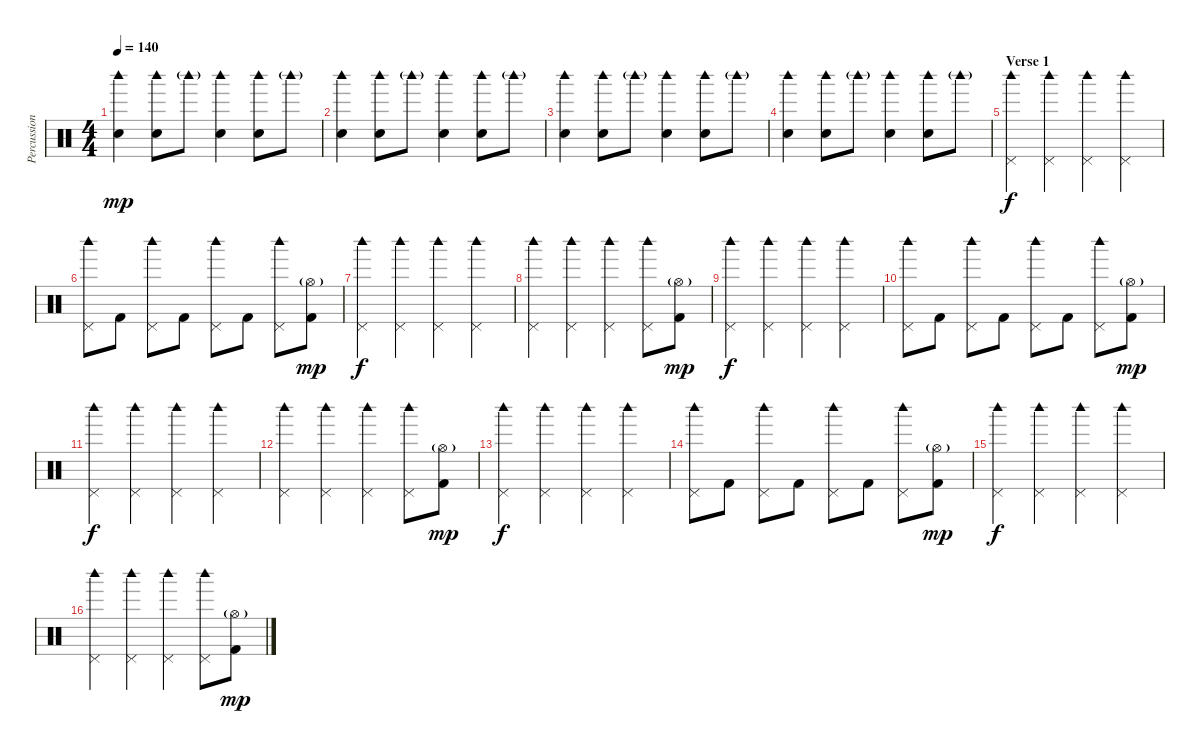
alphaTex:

\track ("Percussion" "Percussion") {instrument percussion}
\staff {score}
\articulation defaults
\ts (4 4)
\tempo 140
\clef neutral
\ks c
("Woodblock high (hit)" "Electric Snare (hit)").4{dy mp} ("Woodblock high (hit)" "Electric Snare (hit)").8 "Woodblock high (hit)"{g}.8 ("Woodblock high (hit)" "Electric Snare (hit)").4 ("Woodblock high (hit)" "Electric Snare (hit)").8 "Woodblock high (hit)"{g}.8 |
("Woodblock high (hit)" "Electric Snare (hit)").4 ("Woodblock high (hit)" "Electric Snare (hit)").8 "Woodblock high (hit)"{g}.8 ("Woodblock high (hit)" "Electric Snare (hit)").4 ("Woodblock high (hit)" "Electric Snare (hit)").8 "Woodblock high (hit)"{g}.8 |
("Woodblock high (hit)" "Electric Snare (hit)").4 ("Woodblock high (hit)" "Electric Snare (hit)").8 "Woodblock high (hit)"{g}.8 ("Woodblock high (hit)" "Electric Snare (hit)").4 ("Woodblock high (hit)" "Electric Snare (hit)").8 "Woodblock high (hit)"{g}.8 |
("Woodblock high (hit)" "Electric Snare (hit)").4 ("Woodblock high (hit)" "Electric Snare (hit)").8 "Woodblock high (hit)"{g}.8 ("Woodblock high (hit)" "Electric Snare (hit)").4 ("Woodblock high (hit)" "Electric Snare (hit)").8 "Woodblock high (hit)"{g}.8 |
\section ("" "Verse 1")
("Pedal Hi-Hat (hit)" "Woodblock high (hit)").4{dy f} ("Pedal Hi-Hat (hit)" "Woodblock high (hit)").4 ("Pedal Hi-Hat (hit)" "Woodblock high (hit)").4 ("Pedal Hi-Hat (hit)" "Woodblock high (hit)").4 |
("Pedal Hi-Hat (hit)" "Woodblock high (hit)").8 "Kick (hit) 2".8 ("Pedal Hi-Hat (hit)" "Woodblock high (hit)").8 "Kick (hit) 2".8 ("Pedal Hi-Hat (hit)" "Woodblock high (hit)").8 "Kick (hit) 2".8 ("Pedal Hi-Hat (hit)" "Woodblock high (hit)").8 ("Hi-Hat (open)"{g} "Kick (hit) 2").8{dy mp} |
("Pedal Hi-Hat (hit)" "Woodblock high (hit)").4{dy f} ("Pedal Hi-Hat (hit)" "Woodblock high (hit)").4 ("Pedal Hi-Hat (hit)" "Woodblock high (hit)").4 ("Pedal Hi-Hat (hit)" "Woodblock high (hit)").4 |
("Pedal Hi-Hat (hit)" "Woodblock high (hit)").4 ("Pedal Hi-Hat (hit)" "Woodblock high (hit)").4 ("Pedal Hi-Hat (hit)" "Woodblock high (hit)").4 ("Pedal Hi-Hat (hit)" "Woodblock high (hit)").8 ("Hi-Hat (open)"{g} "Kick (hit) 2").8{dy mp} |
("Pedal Hi-Hat (hit)" "Woodblock high (hit)").4{dy f} ("Pedal Hi-Hat (hit)" "Woodblock high (hit)").4 ("Pedal Hi-Hat (hit)" "Woodblock high (hit)").4 ("Pedal Hi-Hat (hit)" "Woodblock high (hit)").4 |
("Pedal Hi-Hat (hit)" "Woodblock high (hit)").8 "Kick (hit) 2".8 ("Pedal Hi-Hat (hit)" "Woodblock high (hit)").8 "Kick (hit) 2".8 ("Pedal Hi-Hat (hit)" "Woodblock high (hit)").8 "Kick (hit) 2".8 ("Pedal Hi-Hat (hit)" "Woodblock high (hit)").8 ("Hi-Hat (open)"{g} "Kick (hit) 2").8{dy mp} |
("Pedal Hi-Hat (hit)" "Woodblock high (hit)").4{dy f} ("Pedal Hi-Hat (hit)" "Woodblock high (hit)").4 ("Pedal Hi-Hat (hit)" "Woodblock high (hit)").4 ("Pedal Hi-Hat (hit)" "Woodblock high (hit)").4 |
("Pedal Hi-Hat (hit)" "Woodblock high (hit)").4 ("Pedal Hi-Hat (hit)" "Woodblock high (hit)").4 ("Pedal Hi-Hat (hit)" "Woodblock high (hit)").4 ("Pedal Hi-Hat (hit)" "Woodblock high (hit)").8 ("Hi-Hat (open)"{g} "Kick (hit) 2").8{dy mp} |
("Pedal Hi-Hat (hit)" "Woodblock high (hit)").4{dy f} ("Pedal Hi-Hat (hit)" "Woodblock high (hit)").4 ("Pedal Hi-Hat (hit)" "Woodblock high (hit)").4 ("Pedal Hi-Hat (hit)" "Woodblock high (hit)").4 |
("Pedal Hi-Hat (hit)" "Woodblock high (hit)").8 "Kick (hit) 2".8 ("Pedal Hi-Hat (hit)" "Woodblock high (hit)").8 "Kick (hit) 2".8 ("Pedal Hi-Hat (hit)" "Woodblock high (hit)").8 "Kick (hit) 2".8 ("Pedal Hi-Hat (hit)" "Woodblock high (hit)").8 ("Hi-Hat (open)"{g} "Kick (hit) 2").8{dy mp} |
("Pedal Hi-Hat (hit)" "Woodblock high (hit)").4{dy f} ("Pedal Hi-Hat (hit)" "Woodblock high (hit)").4 ("Pedal Hi-Hat (hit)" "Woodblock high (hit)").4 ("Pedal Hi-Hat (hit)" "Woodblock high (hit)").4 |
("Pedal Hi-Hat (hit)" "Woodblock high (hit)").4 ("Pedal Hi-Hat (hit)" "Woodblock high (hit)").4 ("Pedal Hi-Hat (hit)" "Woodblock high (hit)").4 ("Pedal Hi-Hat (hit)" "Woodblock high (hit)").8 ("Hi-Hat (open)"{g} "Kick (hit) 2").8{dy mp}
